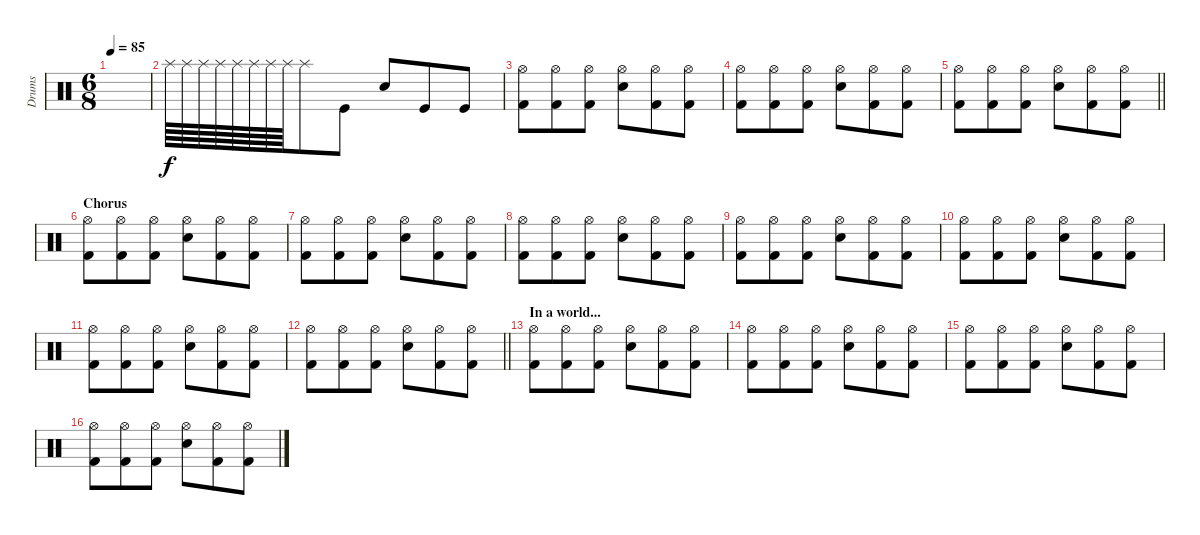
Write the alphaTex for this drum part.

\track ("Drums" "Drums") {instrument percussion}
\staff {score}
\articulation defaults
\ts (6 8)
\tempo 85
\clef neutral
\ks c
|
"Splash (hit)".64 "Splash (hit)".64 "Splash (hit)".64 "Splash (hit)".64 "Splash (hit)".64 "Splash (hit)".64 "Splash (hit)".64 "Splash (hit)".64 "Splash (hit)".8 "Kick (hit)".8 "Snare (hit) 2".8 "Kick (hit)".8 "Kick (hit)".8 |
("Hi-Hat (open)" "Kick (hit) 2").8 ("Hi-Hat (open)" "Kick (hit) 2").8 ("Hi-Hat (open)" "Kick (hit) 2").8 ("Hi-Hat (open)" "Electric Snare (hit)").8 ("Hi-Hat (open)" "Kick (hit) 2").8 ("Hi-Hat (open)" "Kick (hit) 2").8 |
("Hi-Hat (open)" "Kick (hit) 2").8 ("Hi-Hat (open)" "Kick (hit) 2").8 ("Hi-Hat (open)" "Kick (hit) 2").8 ("Hi-Hat (open)" "Electric Snare (hit)").8 ("Hi-Hat (open)" "Kick (hit) 2").8 ("Hi-Hat (open)" "Kick (hit) 2").8 |
\barLineRight lightlight
("Hi-Hat (open)" "Kick (hit) 2").8 ("Hi-Hat (open)" "Kick (hit) 2").8 ("Hi-Hat (open)" "Kick (hit) 2").8 ("Hi-Hat (open)" "Electric Snare (hit)").8 ("Hi-Hat (open)" "Kick (hit) 2").8 ("Hi-Hat (open)" "Kick (hit) 2").8 |
\section ("" "Chorus")
("Hi-Hat (open)" "Kick (hit) 2").8 ("Hi-Hat (open)" "Kick (hit) 2").8 ("Hi-Hat (open)" "Kick (hit) 2").8 ("Hi-Hat (open)" "Electric Snare (hit)").8 ("Hi-Hat (open)" "Kick (hit) 2").8 ("Hi-Hat (open)" "Kick (hit) 2").8 |
("Hi-Hat (open)" "Kick (hit) 2").8 ("Hi-Hat (open)" "Kick (hit) 2").8 ("Hi-Hat (open)" "Kick (hit) 2").8 ("Hi-Hat (open)" "Electric Snare (hit)").8 ("Hi-Hat (open)" "Kick (hit) 2").8 ("Hi-Hat (open)" "Kick (hit) 2").8 |
("Hi-Hat (open)" "Kick (hit) 2").8 ("Hi-Hat (open)" "Kick (hit) 2").8 ("Hi-Hat (open)" "Kick (hit) 2").8 ("Hi-Hat (open)" "Electric Snare (hit)").8 ("Hi-Hat (open)" "Kick (hit) 2").8 ("Hi-Hat (open)" "Kick (hit) 2").8 |
("Hi-Hat (open)" "Kick (hit) 2").8 ("Hi-Hat (open)" "Kick (hit) 2").8 ("Hi-Hat (open)" "Kick (hit) 2").8 ("Hi-Hat (open)" "Electric Snare (hit)").8 ("Hi-Hat (open)" "Kick (hit) 2").8 ("Hi-Hat (open)" "Kick (hit) 2").8 |
("Hi-Hat (open)" "Kick (hit) 2").8 ("Hi-Hat (open)" "Kick (hit) 2").8 ("Hi-Hat (open)" "Kick (hit) 2").8 ("Hi-Hat (open)" "Electric Snare (hit)").8 ("Hi-Hat (open)" "Kick (hit) 2").8 ("Hi-Hat (open)" "Kick (hit) 2").8 |
("Hi-Hat (open)" "Kick (hit) 2").8 ("Hi-Hat (open)" "Kick (hit) 2").8 ("Hi-Hat (open)" "Kick (hit) 2").8 ("Hi-Hat (open)" "Electric Snare (hit)").8 ("Hi-Hat (open)" "Kick (hit) 2").8 ("Hi-Hat (open)" "Kick (hit) 2").8 |
\barLineRight lightlight
("Hi-Hat (open)" "Kick (hit) 2").8 ("Hi-Hat (open)" "Kick (hit) 2").8 ("Hi-Hat (open)" "Kick (hit) 2").8 ("Hi-Hat (open)" "Electric Snare (hit)").8 ("Hi-Hat (open)" "Kick (hit) 2").8 ("Hi-Hat (open)" "Kick (hit) 2").8 |
\section ("" "In a world...")
("Hi-Hat (open)" "Kick (hit) 2").8 ("Hi-Hat (open)" "Kick (hit) 2").8 ("Hi-Hat (open)" "Kick (hit) 2").8 ("Hi-Hat (open)" "Electric Snare (hit)").8 ("Hi-Hat (open)" "Kick (hit) 2").8 ("Hi-Hat (open)" "Kick (hit) 2").8 |
("Hi-Hat (open)" "Kick (hit) 2").8 ("Hi-Hat (open)" "Kick (hit) 2").8 ("Hi-Hat (open)" "Kick (hit) 2").8 ("Hi-Hat (open)" "Electric Snare (hit)").8 ("Hi-Hat (open)" "Kick (hit) 2").8 ("Hi-Hat (open)" "Kick (hit) 2").8 |
("Hi-Hat (open)" "Kick (hit) 2").8 ("Hi-Hat (open)" "Kick (hit) 2").8 ("Hi-Hat (open)" "Kick (hit) 2").8 ("Hi-Hat (open)" "Electric Snare (hit)").8 ("Hi-Hat (open)" "Kick (hit) 2").8 ("Hi-Hat (open)" "Kick (hit) 2").8 |
("Hi-Hat (open)" "Kick (hit) 2").8 ("Hi-Hat (open)" "Kick (hit) 2").8 ("Hi-Hat (open)" "Kick (hit) 2").8 ("Hi-Hat (open)" "Electric Snare (hit)").8 ("Hi-Hat (open)" "Kick (hit) 2").8 ("Hi-Hat (open)" "Kick (hit) 2").8
